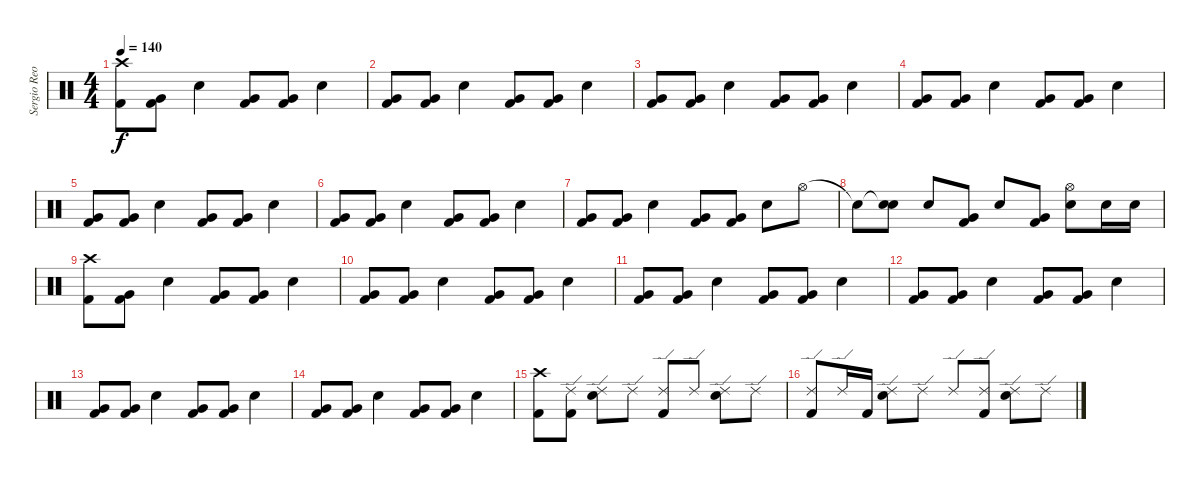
\track ("Sergio Reoli" "Sergio Reo") {instrument percussion}
\staff {score}
\articulation defaults
\ts (4 4)
\tempo 140
\clef neutral
\ks c
("Crash high (hit)" "Kick (hit) 2").8{dy f} ("Very Low Tom (hit)" "Kick (hit) 2").8 "Electric Snare (hit)".4 ("Very Low Tom (hit)" "Kick (hit) 2").8 ("Very Low Tom (hit)" "Kick (hit) 2").8 "Electric Snare (hit)".4 |
("Very Low Tom (hit)" "Kick (hit) 2").8 ("Very Low Tom (hit)" "Kick (hit) 2").8 "Electric Snare (hit)".4 ("Very Low Tom (hit)" "Kick (hit) 2").8 ("Very Low Tom (hit)" "Kick (hit) 2").8 "Electric Snare (hit)".4 |
("Very Low Tom (hit)" "Kick (hit) 2").8 ("Very Low Tom (hit)" "Kick (hit) 2").8 "Electric Snare (hit)".4 ("Very Low Tom (hit)" "Kick (hit) 2").8 ("Very Low Tom (hit)" "Kick (hit) 2").8 "Electric Snare (hit)".4 |
("Very Low Tom (hit)" "Kick (hit) 2").8 ("Very Low Tom (hit)" "Kick (hit) 2").8 "Electric Snare (hit)".4 ("Very Low Tom (hit)" "Kick (hit) 2").8 ("Very Low Tom (hit)" "Kick (hit) 2").8 "Electric Snare (hit)".4 |
("Very Low Tom (hit)" "Kick (hit) 2").8 ("Very Low Tom (hit)" "Kick (hit) 2").8 "Electric Snare (hit)".4 ("Very Low Tom (hit)" "Kick (hit) 2").8 ("Very Low Tom (hit)" "Kick (hit) 2").8 "Electric Snare (hit)".4 |
("Very Low Tom (hit)" "Kick (hit) 2").8 ("Very Low Tom (hit)" "Kick (hit) 2").8 "Electric Snare (hit)".4 ("Very Low Tom (hit)" "Kick (hit) 2").8 ("Very Low Tom (hit)" "Kick (hit) 2").8 "Electric Snare (hit)".4 |
("Very Low Tom (hit)" "Kick (hit) 2").8 ("Very Low Tom (hit)" "Kick (hit) 2").8 "Electric Snare (hit)".4 ("Very Low Tom (hit)" "Kick (hit) 2").8 ("Very Low Tom (hit)" "Kick (hit) 2").8 "Electric Snare (hit)".8 "Hi-Hat (open)".8 |
"Snare (hit)"{t}.8 ("Snare (hit)"{t} "Electric Snare (hit)").8 "Electric Snare (hit)".8 ("Very Low Tom (hit)" "Kick (hit) 2").8 "Electric Snare (hit)".8 ("Very Low Tom (hit)" "Kick (hit) 2").8 ("Hi-Hat (open)" "Electric Snare (hit)").8 "Electric Snare (hit)".16 "Electric Snare (hit)".16 |
("Crash high (hit)" "Kick (hit) 2").8 ("Very Low Tom (hit)" "Kick (hit) 2").8 "Electric Snare (hit)".4 ("Very Low Tom (hit)" "Kick (hit) 2").8 ("Very Low Tom (hit)" "Kick (hit) 2").8 "Electric Snare (hit)".4 |
("Very Low Tom (hit)" "Kick (hit) 2").8 ("Very Low Tom (hit)" "Kick (hit) 2").8 "Electric Snare (hit)".4 ("Very Low Tom (hit)" "Kick (hit) 2").8 ("Very Low Tom (hit)" "Kick (hit) 2").8 "Electric Snare (hit)".4 |
("Very Low Tom (hit)" "Kick (hit) 2").8 ("Very Low Tom (hit)" "Kick (hit) 2").8 "Electric Snare (hit)".4 ("Very Low Tom (hit)" "Kick (hit) 2").8 ("Very Low Tom (hit)" "Kick (hit) 2").8 "Electric Snare (hit)".4 |
("Very Low Tom (hit)" "Kick (hit) 2").8 ("Very Low Tom (hit)" "Kick (hit) 2").8 "Electric Snare (hit)".4 ("Very Low Tom (hit)" "Kick (hit) 2").8 ("Very Low Tom (hit)" "Kick (hit) 2").8 "Electric Snare (hit)".4 |
("Very Low Tom (hit)" "Kick (hit) 2").8 ("Very Low Tom (hit)" "Kick (hit) 2").8 "Electric Snare (hit)".4 ("Very Low Tom (hit)" "Kick (hit) 2").8 ("Very Low Tom (hit)" "Kick (hit) 2").8 "Electric Snare (hit)".4 |
("Very Low Tom (hit)" "Kick (hit) 2").8 ("Very Low Tom (hit)" "Kick (hit) 2").8 "Electric Snare (hit)".4 ("Very Low Tom (hit)" "Kick (hit) 2").8 ("Very Low Tom (hit)" "Kick (hit) 2").8 "Electric Snare (hit)".4 |
("Crash high (hit)" "Kick (hit) 2").8 ("Ride (edge) 2" "Kick (hit) 2").8 ("Ride (edge) 2" "Electric Snare (hit)").8 "Ride (edge) 2".8 ("Ride (edge) 2" "Kick (hit) 2").8 "Ride (edge) 2".8 ("Ride (edge) 2" "Electric Snare (hit)").8 "Ride (edge) 2".8 |
("Ride (edge) 2" "Kick (hit) 2").8 "Ride (edge) 2".16 "Kick (hit) 2".16 ("Ride (edge) 2" "Electric Snare (hit)").8 "Ride (edge) 2".8 "Ride (edge) 2".8 ("Ride (edge) 2" "Kick (hit) 2").8 ("Ride (edge) 2" "Electric Snare (hit)").8 "Ride (edge) 2".8
